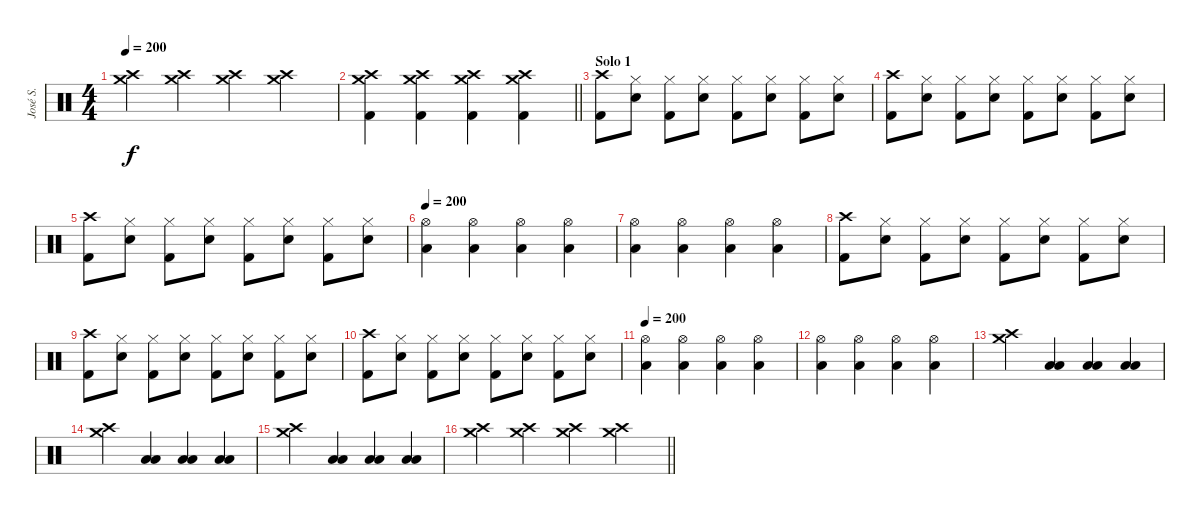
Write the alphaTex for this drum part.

\track ("José S." "José S.") {instrument percussion}
\staff {score}
\articulation defaults
\ts (4 4)
\tempo 200
\clef neutral
\ks c
("Crash medium (hit)" "Crash high (hit)").4{dy f} ("Crash medium (hit)" "Crash high (hit)").4 ("Crash medium (hit)" "Crash high (hit)").4 ("Crash medium (hit)" "Crash high (hit)").4 |
\barLineRight lightlight
("Crash medium (hit)" "Crash high (hit)" "Kick (hit) 2").4 ("Crash medium (hit)" "Crash high (hit)" "Kick (hit) 2").4 ("Crash medium (hit)" "Crash high (hit)" "Kick (hit) 2").4 ("Crash medium (hit)" "Crash high (hit)" "Kick (hit) 2").4 |
\section ("" "Solo 1")
("Crash high (hit)" "Kick (hit) 2").8 ("Hi-Hat (closed)" "Electric Snare (hit)").8 ("Hi-Hat (closed)" "Kick (hit) 2").8 ("Hi-Hat (closed)" "Electric Snare (hit)").8 ("Hi-Hat (closed)" "Kick (hit) 2").8 ("Hi-Hat (closed)" "Electric Snare (hit)").8 ("Hi-Hat (closed)" "Kick (hit) 2").8 ("Hi-Hat (closed)" "Electric Snare (hit)").8 |
("Crash high (hit)" "Kick (hit) 2").8 ("Hi-Hat (closed)" "Electric Snare (hit)").8 ("Hi-Hat (closed)" "Kick (hit) 2").8 ("Hi-Hat (closed)" "Electric Snare (hit)").8 ("Hi-Hat (closed)" "Kick (hit) 2").8 ("Hi-Hat (closed)" "Electric Snare (hit)").8 ("Hi-Hat (closed)" "Kick (hit) 2").8 ("Hi-Hat (closed)" "Electric Snare (hit)").8 |
("Crash high (hit)" "Kick (hit) 2").8 ("Hi-Hat (closed)" "Electric Snare (hit)").8 ("Hi-Hat (closed)" "Kick (hit) 2").8 ("Hi-Hat (closed)" "Electric Snare (hit)").8 ("Hi-Hat (closed)" "Kick (hit) 2").8 ("Hi-Hat (closed)" "Electric Snare (hit)").8 ("Hi-Hat (closed)" "Kick (hit) 2").8 ("Hi-Hat (closed)" "Electric Snare (hit)").8 |
\tempo 200
("Hi-Hat (open)" "Low Floor Tom (hit)").4 ("Hi-Hat (open)" "Low Floor Tom (hit)").4 ("Hi-Hat (open)" "Low Floor Tom (hit)").4 ("Hi-Hat (open)" "Low Floor Tom (hit)").4 |
("Hi-Hat (open)" "Low Floor Tom (hit)").4 ("Hi-Hat (open)" "Low Floor Tom (hit)").4 ("Hi-Hat (open)" "Low Floor Tom (hit)").4 ("Hi-Hat (open)" "Low Floor Tom (hit)").4 |
("Crash high (hit)" "Kick (hit) 2").8 ("Hi-Hat (closed)" "Electric Snare (hit)").8 ("Hi-Hat (closed)" "Kick (hit) 2").8 ("Hi-Hat (closed)" "Electric Snare (hit)").8 ("Hi-Hat (closed)" "Kick (hit) 2").8 ("Hi-Hat (closed)" "Electric Snare (hit)").8 ("Hi-Hat (closed)" "Kick (hit) 2").8 ("Hi-Hat (closed)" "Electric Snare (hit)").8 |
("Crash high (hit)" "Kick (hit) 2").8 ("Hi-Hat (closed)" "Electric Snare (hit)").8 ("Hi-Hat (closed)" "Kick (hit) 2").8 ("Hi-Hat (closed)" "Electric Snare (hit)").8 ("Hi-Hat (closed)" "Kick (hit) 2").8 ("Hi-Hat (closed)" "Electric Snare (hit)").8 ("Hi-Hat (closed)" "Kick (hit) 2").8 ("Hi-Hat (closed)" "Electric Snare (hit)").8 |
("Crash high (hit)" "Kick (hit) 2").8 ("Hi-Hat (closed)" "Electric Snare (hit)").8 ("Hi-Hat (closed)" "Kick (hit) 2").8 ("Hi-Hat (closed)" "Electric Snare (hit)").8 ("Hi-Hat (closed)" "Kick (hit) 2").8 ("Hi-Hat (closed)" "Electric Snare (hit)").8 ("Hi-Hat (closed)" "Kick (hit) 2").8 ("Hi-Hat (closed)" "Electric Snare (hit)").8 |
\tempo 200
("Hi-Hat (open)" "Low Floor Tom (hit)").4 ("Hi-Hat (open)" "Low Floor Tom (hit)").4 ("Hi-Hat (open)" "Low Floor Tom (hit)").4 ("Hi-Hat (open)" "Low Floor Tom (hit)").4 |
("Hi-Hat (open)" "Low Floor Tom (hit)").4 ("Hi-Hat (open)" "Low Floor Tom (hit)").4 ("Hi-Hat (open)" "Low Floor Tom (hit)").4 ("Hi-Hat (open)" "Low Floor Tom (hit)").4 |
("Crash high (hit)" "Crash medium (hit)").4 ("Low Tom (hit)" "Low Floor Tom (hit)").4 ("Low Tom (hit)" "Low Floor Tom (hit)").4 ("Low Tom (hit)" "Low Floor Tom (hit)").4 |
("Crash high (hit)" "Crash medium (hit)").4 ("Low Tom (hit)" "Low Floor Tom (hit)").4 ("Low Tom (hit)" "Low Floor Tom (hit)").4 ("Low Tom (hit)" "Low Floor Tom (hit)").4 |
("Crash high (hit)" "Crash medium (hit)").4 ("Low Tom (hit)" "Low Floor Tom (hit)").4 ("Low Tom (hit)" "Low Floor Tom (hit)").4 ("Low Tom (hit)" "Low Floor Tom (hit)").4 |
\barLineRight lightlight
("Crash medium (hit)" "Crash high (hit)").4 ("Crash medium (hit)" "Crash high (hit)").4 ("Crash medium (hit)" "Crash high (hit)").4 ("Crash medium (hit)" "Crash high (hit)").4
